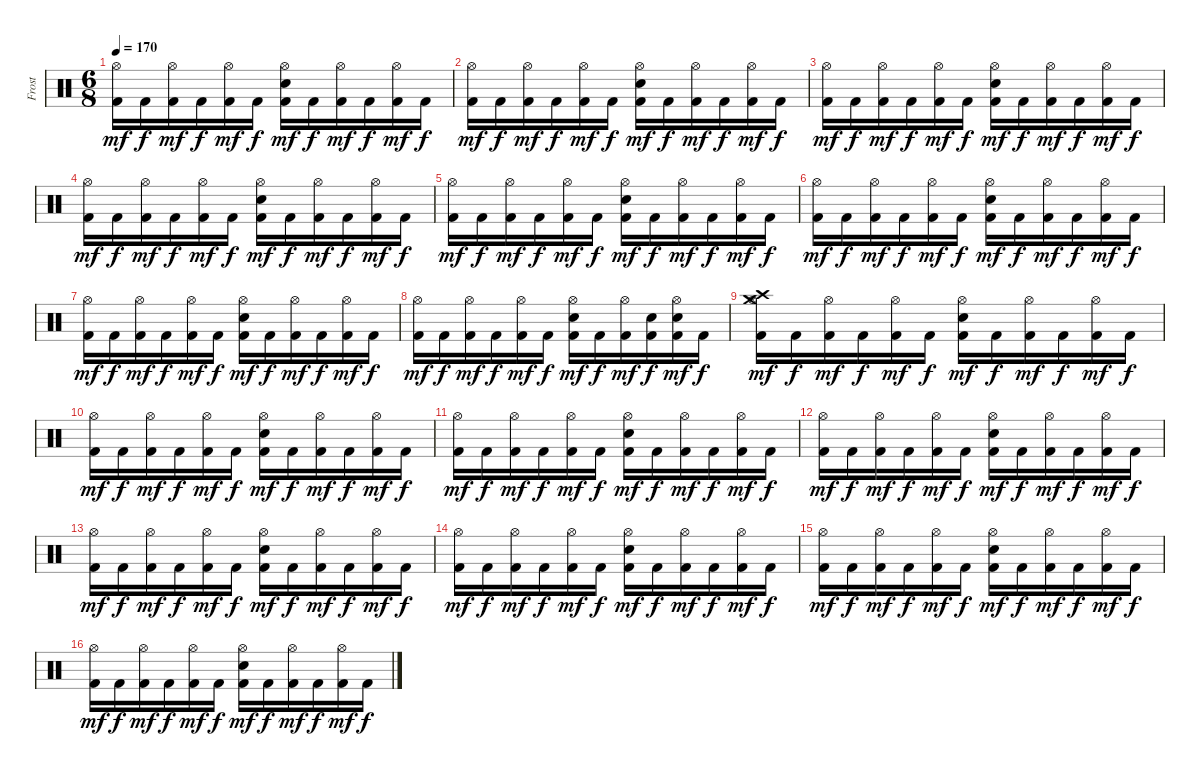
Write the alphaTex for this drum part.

\track ("Frost" "Frost") {instrument percussion}
\staff {score}
\articulation defaults
\ts (6 8)
\tempo 170
\clef neutral
\ks c
("Kick (hit) 2" "Hi-Hat (open)").16{dy mf} "Kick (hit) 2".16{dy f} ("Kick (hit) 2" "Hi-Hat (open)").16{dy mf} "Kick (hit) 2".16{dy f} ("Kick (hit) 2" "Hi-Hat (open)").16{dy mf} "Kick (hit) 2".16{dy f} ("Kick (hit) 2" "Hi-Hat (open)" "Snare (hit) 2").16{dy mf} "Kick (hit) 2".16{dy f} ("Kick (hit) 2" "Hi-Hat (open)").16{dy mf} "Kick (hit) 2".16{dy f} ("Kick (hit) 2" "Hi-Hat (open)").16{dy mf} "Kick (hit) 2".16{dy f} |
("Kick (hit) 2" "Hi-Hat (open)").16{dy mf} "Kick (hit) 2".16{dy f} ("Kick (hit) 2" "Hi-Hat (open)").16{dy mf} "Kick (hit) 2".16{dy f} ("Kick (hit) 2" "Hi-Hat (open)").16{dy mf} "Kick (hit) 2".16{dy f} ("Kick (hit) 2" "Hi-Hat (open)" "Snare (hit) 2").16{dy mf} "Kick (hit) 2".16{dy f} ("Kick (hit) 2" "Hi-Hat (open)").16{dy mf} "Kick (hit) 2".16{dy f} ("Kick (hit) 2" "Hi-Hat (open)").16{dy mf} "Kick (hit) 2".16{dy f} |
("Kick (hit) 2" "Hi-Hat (open)").16{dy mf} "Kick (hit) 2".16{dy f} ("Kick (hit) 2" "Hi-Hat (open)").16{dy mf} "Kick (hit) 2".16{dy f} ("Kick (hit) 2" "Hi-Hat (open)").16{dy mf} "Kick (hit) 2".16{dy f} ("Kick (hit) 2" "Hi-Hat (open)" "Snare (hit) 2").16{dy mf} "Kick (hit) 2".16{dy f} ("Kick (hit) 2" "Hi-Hat (open)").16{dy mf} "Kick (hit) 2".16{dy f} ("Kick (hit) 2" "Hi-Hat (open)").16{dy mf} "Kick (hit) 2".16{dy f} |
("Kick (hit) 2" "Hi-Hat (open)").16{dy mf} "Kick (hit) 2".16{dy f} ("Kick (hit) 2" "Hi-Hat (open)").16{dy mf} "Kick (hit) 2".16{dy f} ("Kick (hit) 2" "Hi-Hat (open)").16{dy mf} "Kick (hit) 2".16{dy f} ("Kick (hit) 2" "Hi-Hat (open)" "Snare (hit) 2").16{dy mf} "Kick (hit) 2".16{dy f} ("Kick (hit) 2" "Hi-Hat (open)").16{dy mf} "Kick (hit) 2".16{dy f} ("Kick (hit) 2" "Hi-Hat (open)").16{dy mf} "Kick (hit) 2".16{dy f} |
("Kick (hit) 2" "Hi-Hat (open)").16{dy mf} "Kick (hit) 2".16{dy f} ("Kick (hit) 2" "Hi-Hat (open)").16{dy mf} "Kick (hit) 2".16{dy f} ("Kick (hit) 2" "Hi-Hat (open)").16{dy mf} "Kick (hit) 2".16{dy f} ("Kick (hit) 2" "Hi-Hat (open)" "Snare (hit) 2").16{dy mf} "Kick (hit) 2".16{dy f} ("Kick (hit) 2" "Hi-Hat (open)").16{dy mf} "Kick (hit) 2".16{dy f} ("Kick (hit) 2" "Hi-Hat (open)").16{dy mf} "Kick (hit) 2".16{dy f} |
("Kick (hit) 2" "Hi-Hat (open)").16{dy mf} "Kick (hit) 2".16{dy f} ("Kick (hit) 2" "Hi-Hat (open)").16{dy mf} "Kick (hit) 2".16{dy f} ("Kick (hit) 2" "Hi-Hat (open)").16{dy mf} "Kick (hit) 2".16{dy f} ("Kick (hit) 2" "Hi-Hat (open)" "Snare (hit) 2").16{dy mf} "Kick (hit) 2".16{dy f} ("Kick (hit) 2" "Hi-Hat (open)").16{dy mf} "Kick (hit) 2".16{dy f} ("Kick (hit) 2" "Hi-Hat (open)").16{dy mf} "Kick (hit) 2".16{dy f} |
("Kick (hit) 2" "Hi-Hat (open)").16{dy mf} "Kick (hit) 2".16{dy f} ("Kick (hit) 2" "Hi-Hat (open)").16{dy mf} "Kick (hit) 2".16{dy f} ("Kick (hit) 2" "Hi-Hat (open)").16{dy mf} "Kick (hit) 2".16{dy f} ("Kick (hit) 2" "Hi-Hat (open)" "Snare (hit) 2").16{dy mf} "Kick (hit) 2".16{dy f} ("Kick (hit) 2" "Hi-Hat (open)").16{dy mf} "Kick (hit) 2".16{dy f} ("Kick (hit) 2" "Hi-Hat (open)").16{dy mf} "Kick (hit) 2".16{dy f} |
("Kick (hit) 2" "Hi-Hat (open)").16{dy mf} "Kick (hit) 2".16{dy f} ("Kick (hit) 2" "Hi-Hat (open)").16{dy mf} "Kick (hit) 2".16{dy f} ("Kick (hit) 2" "Hi-Hat (open)").16{dy mf} "Kick (hit) 2".16{dy f} ("Kick (hit) 2" "Hi-Hat (open)" "Snare (hit) 2").16{dy mf} "Kick (hit) 2".16{dy f} ("Kick (hit) 2" "Hi-Hat (open)").16{dy mf} ("Kick (hit) 2" "Snare (hit) 2").16{dy f} ("Kick (hit) 2" "Hi-Hat (open)" "Snare (hit) 2").16{dy mf} "Kick (hit) 2".16{dy f} |
("Kick (hit) 2" "Crash high (hit)" "Crash medium (hit)" "Hi-Hat (open)").16{dy mf} "Kick (hit) 2".16{dy f} ("Kick (hit) 2" "Hi-Hat (open)").16{dy mf} "Kick (hit) 2".16{dy f} ("Kick (hit) 2" "Hi-Hat (open)").16{dy mf} "Kick (hit) 2".16{dy f} ("Kick (hit) 2" "Hi-Hat (open)" "Snare (hit) 2").16{dy mf} "Kick (hit) 2".16{dy f} ("Kick (hit) 2" "Hi-Hat (open)").16{dy mf} "Kick (hit) 2".16{dy f} ("Kick (hit) 2" "Hi-Hat (open)").16{dy mf} "Kick (hit) 2".16{dy f} |
("Kick (hit) 2" "Hi-Hat (open)").16{dy mf} "Kick (hit) 2".16{dy f} ("Kick (hit) 2" "Hi-Hat (open)").16{dy mf} "Kick (hit) 2".16{dy f} ("Kick (hit) 2" "Hi-Hat (open)").16{dy mf} "Kick (hit) 2".16{dy f} ("Kick (hit) 2" "Hi-Hat (open)" "Snare (hit) 2").16{dy mf} "Kick (hit) 2".16{dy f} ("Kick (hit) 2" "Hi-Hat (open)").16{dy mf} "Kick (hit) 2".16{dy f} ("Kick (hit) 2" "Hi-Hat (open)").16{dy mf} "Kick (hit) 2".16{dy f} |
("Kick (hit) 2" "Hi-Hat (open)").16{dy mf} "Kick (hit) 2".16{dy f} ("Kick (hit) 2" "Hi-Hat (open)").16{dy mf} "Kick (hit) 2".16{dy f} ("Kick (hit) 2" "Hi-Hat (open)").16{dy mf} "Kick (hit) 2".16{dy f} ("Kick (hit) 2" "Hi-Hat (open)" "Snare (hit) 2").16{dy mf} "Kick (hit) 2".16{dy f} ("Kick (hit) 2" "Hi-Hat (open)").16{dy mf} "Kick (hit) 2".16{dy f} ("Kick (hit) 2" "Hi-Hat (open)").16{dy mf} "Kick (hit) 2".16{dy f} |
("Kick (hit) 2" "Hi-Hat (open)").16{dy mf} "Kick (hit) 2".16{dy f} ("Kick (hit) 2" "Hi-Hat (open)").16{dy mf} "Kick (hit) 2".16{dy f} ("Kick (hit) 2" "Hi-Hat (open)").16{dy mf} "Kick (hit) 2".16{dy f} ("Kick (hit) 2" "Hi-Hat (open)" "Snare (hit) 2").16{dy mf} "Kick (hit) 2".16{dy f} ("Kick (hit) 2" "Hi-Hat (open)").16{dy mf} "Kick (hit) 2".16{dy f} ("Kick (hit) 2" "Hi-Hat (open)").16{dy mf} "Kick (hit) 2".16{dy f} |
("Kick (hit) 2" "Hi-Hat (open)").16{dy mf} "Kick (hit) 2".16{dy f} ("Kick (hit) 2" "Hi-Hat (open)").16{dy mf} "Kick (hit) 2".16{dy f} ("Kick (hit) 2" "Hi-Hat (open)").16{dy mf} "Kick (hit) 2".16{dy f} ("Kick (hit) 2" "Hi-Hat (open)" "Snare (hit) 2").16{dy mf} "Kick (hit) 2".16{dy f} ("Kick (hit) 2" "Hi-Hat (open)").16{dy mf} "Kick (hit) 2".16{dy f} ("Kick (hit) 2" "Hi-Hat (open)").16{dy mf} "Kick (hit) 2".16{dy f} |
("Kick (hit) 2" "Hi-Hat (open)").16{dy mf} "Kick (hit) 2".16{dy f} ("Kick (hit) 2" "Hi-Hat (open)").16{dy mf} "Kick (hit) 2".16{dy f} ("Kick (hit) 2" "Hi-Hat (open)").16{dy mf} "Kick (hit) 2".16{dy f} ("Kick (hit) 2" "Hi-Hat (open)" "Snare (hit) 2").16{dy mf} "Kick (hit) 2".16{dy f} ("Kick (hit) 2" "Hi-Hat (open)").16{dy mf} "Kick (hit) 2".16{dy f} ("Kick (hit) 2" "Hi-Hat (open)").16{dy mf} "Kick (hit) 2".16{dy f} |
("Kick (hit) 2" "Hi-Hat (open)").16{dy mf} "Kick (hit) 2".16{dy f} ("Kick (hit) 2" "Hi-Hat (open)").16{dy mf} "Kick (hit) 2".16{dy f} ("Kick (hit) 2" "Hi-Hat (open)").16{dy mf} "Kick (hit) 2".16{dy f} ("Kick (hit) 2" "Hi-Hat (open)" "Snare (hit) 2").16{dy mf} "Kick (hit) 2".16{dy f} ("Kick (hit) 2" "Hi-Hat (open)").16{dy mf} "Kick (hit) 2".16{dy f} ("Kick (hit) 2" "Hi-Hat (open)").16{dy mf} "Kick (hit) 2".16{dy f} |
("Kick (hit) 2" "Hi-Hat (open)").16{dy mf} "Kick (hit) 2".16{dy f} ("Kick (hit) 2" "Hi-Hat (open)").16{dy mf} "Kick (hit) 2".16{dy f} ("Kick (hit) 2" "Hi-Hat (open)").16{dy mf} "Kick (hit) 2".16{dy f} ("Kick (hit) 2" "Hi-Hat (open)" "Snare (hit) 2").16{dy mf} "Kick (hit) 2".16{dy f} ("Kick (hit) 2" "Hi-Hat (open)").16{dy mf} "Kick (hit) 2".16{dy f} ("Kick (hit) 2" "Hi-Hat (open)").16{dy mf} "Kick (hit) 2".16{dy f}
